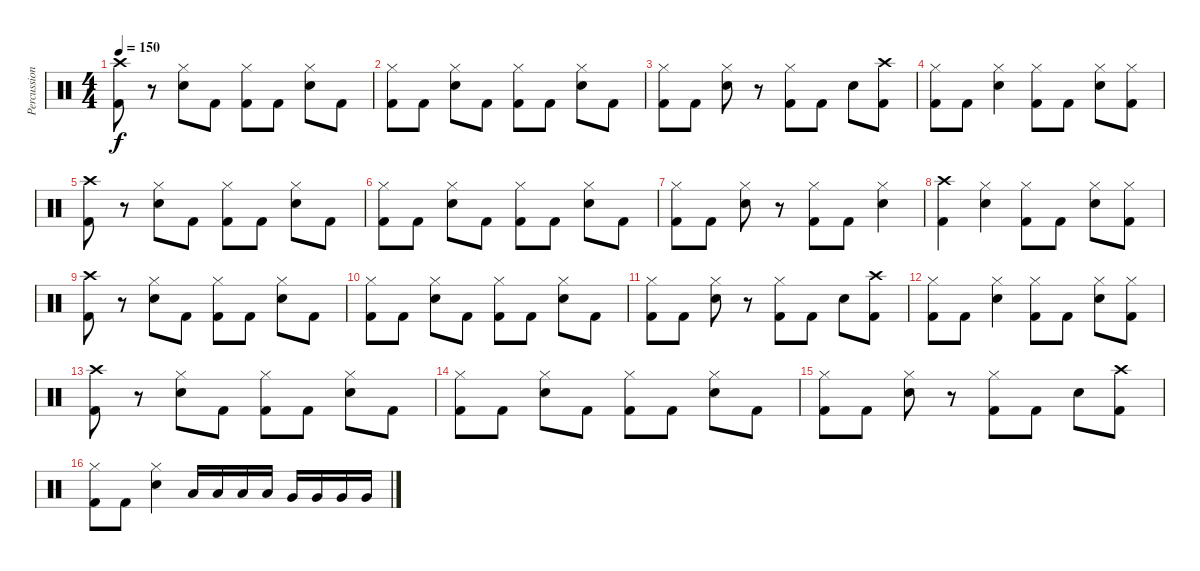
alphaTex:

\track ("Percussion" "Percussion") {instrument percussion}
\staff {score}
\articulation defaults
\ts (4 4)
\tempo 150
\clef neutral
\ks c
("Crash high (hit)" "Kick (hit) 2").8{dy f} r.8 ("Hi-Hat (closed)" "Electric Snare (hit)").8 "Kick (hit) 2".8 ("Hi-Hat (closed)" "Kick (hit) 2").8 "Kick (hit) 2".8 ("Hi-Hat (closed)" "Electric Snare (hit)").8 "Kick (hit) 2".8 |
("Hi-Hat (closed)" "Kick (hit) 2").8 "Kick (hit) 2".8 ("Hi-Hat (closed)" "Electric Snare (hit)").8 "Kick (hit) 2".8 ("Hi-Hat (closed)" "Kick (hit) 2").8 "Kick (hit) 2".8 ("Hi-Hat (closed)" "Electric Snare (hit)").8 "Kick (hit) 2".8 |
("Hi-Hat (closed)" "Kick (hit) 2").8 "Kick (hit) 2".8 ("Hi-Hat (closed)" "Electric Snare (hit)").8 r.8 ("Hi-Hat (closed)" "Kick (hit) 2").8 "Kick (hit) 2".8 "Electric Snare (hit)".8 ("Crash high (hit)" "Kick (hit) 2").8 |
("Hi-Hat (closed)" "Kick (hit) 2").8 "Kick (hit) 2".8 ("Hi-Hat (closed)" "Electric Snare (hit)").4 ("Hi-Hat (closed)" "Kick (hit) 2").8 "Kick (hit) 2".8 ("Hi-Hat (closed)" "Electric Snare (hit)").8 ("Hi-Hat (closed)" "Kick (hit) 2").8 |
("Crash high (hit)" "Kick (hit) 2").8 r.8 ("Hi-Hat (closed)" "Electric Snare (hit)").8 "Kick (hit) 2".8 ("Hi-Hat (closed)" "Kick (hit) 2").8 "Kick (hit) 2".8 ("Hi-Hat (closed)" "Electric Snare (hit)").8 "Kick (hit) 2".8 |
("Hi-Hat (closed)" "Kick (hit) 2").8 "Kick (hit) 2".8 ("Hi-Hat (closed)" "Electric Snare (hit)").8 "Kick (hit) 2".8 ("Hi-Hat (closed)" "Kick (hit) 2").8 "Kick (hit) 2".8 ("Hi-Hat (closed)" "Electric Snare (hit)").8 "Kick (hit) 2".8 |
("Hi-Hat (closed)" "Kick (hit) 2").8 "Kick (hit) 2".8 ("Hi-Hat (closed)" "Electric Snare (hit)").8 r.8 ("Hi-Hat (closed)" "Kick (hit) 2").8 "Kick (hit) 2".8 ("Hi-Hat (closed)" "Electric Snare (hit)").4 |
("Crash high (hit)" "Kick (hit) 2").4 ("Hi-Hat (closed)" "Electric Snare (hit)").4 ("Hi-Hat (closed)" "Kick (hit) 2").8 "Kick (hit) 2".8 ("Hi-Hat (closed)" "Electric Snare (hit)").8 ("Hi-Hat (closed)" "Kick (hit) 2").8 |
("Crash high (hit)" "Kick (hit) 2").8 r.8 ("Hi-Hat (closed)" "Electric Snare (hit)").8 "Kick (hit) 2".8 ("Hi-Hat (closed)" "Kick (hit) 2").8 "Kick (hit) 2".8 ("Hi-Hat (closed)" "Electric Snare (hit)").8 "Kick (hit) 2".8 |
("Hi-Hat (closed)" "Kick (hit) 2").8 "Kick (hit) 2".8 ("Hi-Hat (closed)" "Electric Snare (hit)").8 "Kick (hit) 2".8 ("Hi-Hat (closed)" "Kick (hit) 2").8 "Kick (hit) 2".8 ("Hi-Hat (closed)" "Electric Snare (hit)").8 "Kick (hit) 2".8 |
("Hi-Hat (closed)" "Kick (hit) 2").8 "Kick (hit) 2".8 ("Hi-Hat (closed)" "Electric Snare (hit)").8 r.8 ("Hi-Hat (closed)" "Kick (hit) 2").8 "Kick (hit) 2".8 "Electric Snare (hit)".8 ("Crash high (hit)" "Kick (hit) 2").8 |
("Hi-Hat (closed)" "Kick (hit) 2").8 "Kick (hit) 2".8 ("Hi-Hat (closed)" "Electric Snare (hit)").4 ("Hi-Hat (closed)" "Kick (hit) 2").8 "Kick (hit) 2".8 ("Hi-Hat (closed)" "Electric Snare (hit)").8 ("Hi-Hat (closed)" "Kick (hit) 2").8 |
("Crash high (hit)" "Kick (hit) 2").8 r.8 ("Hi-Hat (closed)" "Electric Snare (hit)").8 "Kick (hit) 2".8 ("Hi-Hat (closed)" "Kick (hit) 2").8 "Kick (hit) 2".8 ("Hi-Hat (closed)" "Electric Snare (hit)").8 "Kick (hit) 2".8 |
("Hi-Hat (closed)" "Kick (hit) 2").8 "Kick (hit) 2".8 ("Hi-Hat (closed)" "Electric Snare (hit)").8 "Kick (hit) 2".8 ("Hi-Hat (closed)" "Kick (hit) 2").8 "Kick (hit) 2".8 ("Hi-Hat (closed)" "Electric Snare (hit)").8 "Kick (hit) 2".8 |
("Hi-Hat (closed)" "Kick (hit) 2").8 "Kick (hit) 2".8 ("Hi-Hat (closed)" "Electric Snare (hit)").8 r.8 ("Hi-Hat (closed)" "Kick (hit) 2").8 "Kick (hit) 2".8 "Electric Snare (hit)".8 ("Crash high (hit)" "Kick (hit) 2").8 |
("Hi-Hat (closed)" "Kick (hit) 2").8 "Kick (hit) 2".8 ("Hi-Hat (closed)" "Electric Snare (hit)").4 "Low Tom (hit)".16 "Low Tom (hit)".16 "Low Tom (hit)".16 "Low Tom (hit)".16 "Very Low Tom (hit)".16 "Very Low Tom (hit)".16 "Very Low Tom (hit)".16 "Very Low Tom (hit)".16
